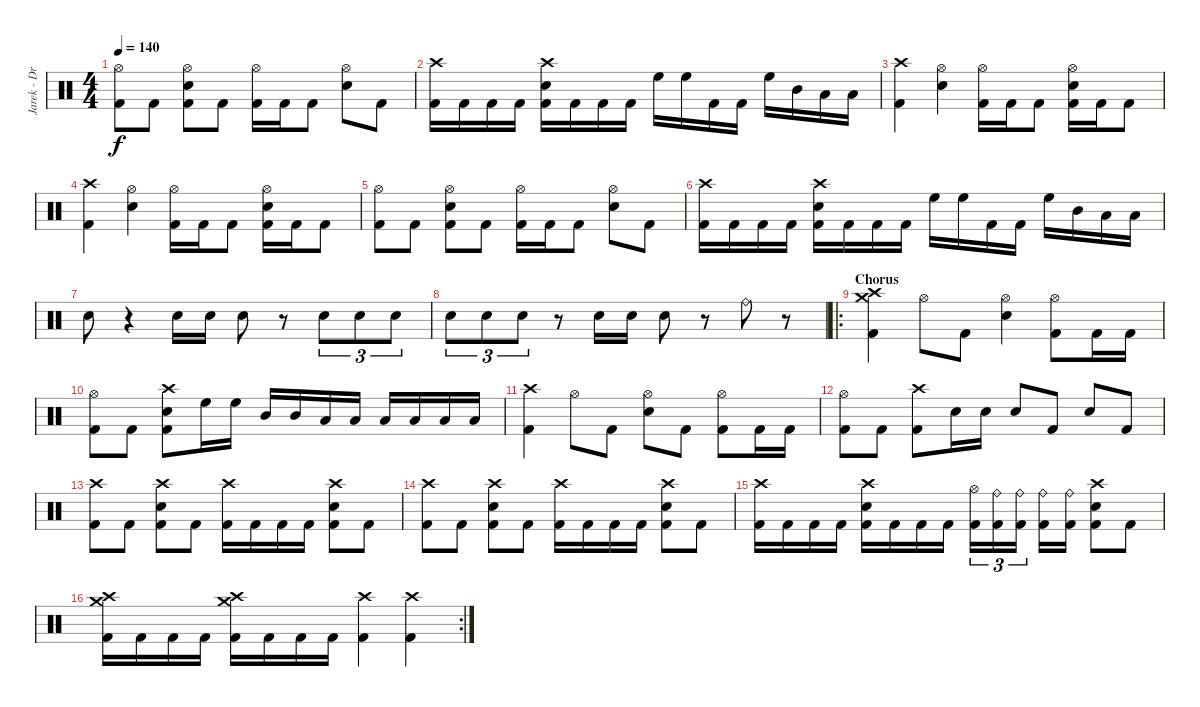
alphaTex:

\track ("Jarek - Drums" "Jarek - Dr") {instrument percussion}
\staff {score}
\articulation defaults
\ts (4 4)
\tempo 140
\clef neutral
\ks c
("Hi-Hat (open)" "Kick (hit) 2").8{dy f} "Kick (hit) 2".8 ("Hi-Hat (open)" "Snare (hit) 2" "Kick (hit) 2").8 "Kick (hit) 2".8 ("Hi-Hat (open)" "Kick (hit) 2").16 "Kick (hit) 2".16 "Kick (hit) 2".8 ("Hi-Hat (open)" "Snare (hit) 2").8 "Kick (hit) 2".8 |
("Crash high (hit)" "Kick (hit) 2").16 "Kick (hit) 2".16 "Kick (hit) 2".16 "Kick (hit) 2".16 ("Crash high (hit)" "Snare (hit) 2" "Kick (hit) 2").16 "Kick (hit) 2".16 "Kick (hit) 2".16 "Kick (hit) 2".16 "High Floor Tom (hit)".16 "High Floor Tom (hit)".16 "Kick (hit) 2".16 "Kick (hit) 2".16 "High Floor Tom (hit)".16 "Mid Tom (hit)".16 "Low Tom (hit)".16 "Low Floor Tom (hit)".16 |
("Crash high (hit)" "Kick (hit) 2").4 ("Hi-Hat (open)" "Snare (hit) 2").4 ("Hi-Hat (open)" "Kick (hit) 2").16 "Kick (hit) 2".16 "Kick (hit) 2".8 ("Hi-Hat (open)" "Snare (hit) 2" "Kick (hit) 2").16 "Kick (hit) 2".16 "Kick (hit) 2".8 |
("Crash high (hit)" "Kick (hit) 2").4 ("Hi-Hat (open)" "Snare (hit) 2").4 ("Hi-Hat (open)" "Kick (hit) 2").16 "Kick (hit) 2".16 "Kick (hit) 2".8 ("Hi-Hat (open)" "Snare (hit) 2" "Kick (hit) 2").16 "Kick (hit) 2".16 "Kick (hit) 2".8 |
("Hi-Hat (open)" "Kick (hit) 2").8 "Kick (hit) 2".8 ("Hi-Hat (open)" "Snare (hit) 2" "Kick (hit) 2").8 "Kick (hit) 2".8 ("Hi-Hat (open)" "Kick (hit) 2").16 "Kick (hit) 2".16 "Kick (hit) 2".8 ("Hi-Hat (open)" "Snare (hit) 2").8 "Kick (hit) 2".8 |
("Crash high (hit)" "Kick (hit) 2").16 "Kick (hit) 2".16 "Kick (hit) 2".16 "Kick (hit) 2".16 ("Crash high (hit)" "Snare (hit) 2" "Kick (hit) 2").16 "Kick (hit) 2".16 "Kick (hit) 2".16 "Kick (hit) 2".16 "High Floor Tom (hit)".16 "High Floor Tom (hit)".16 "Kick (hit) 2".16 "Kick (hit) 2".16 "High Floor Tom (hit)".16 "Mid Tom (hit)".16 "Low Tom (hit)".16 "Low Floor Tom (hit)".16 |
"Snare (hit) 2".8 r.4 "Snare (hit) 2".16 "Snare (hit) 2".16 "Snare (hit) 2".8 r.8 "Snare (hit) 2".8{tu (3 2)} "Snare (hit) 2".8{tu (3 2)} "Snare (hit) 2".8{tu (3 2)} |
"Snare (hit) 2".8{tu (3 2)} "Snare (hit) 2".8{tu (3 2)} "Snare (hit) 2".8{tu (3 2)} r.8 "Snare (hit) 2".16 "Snare (hit) 2".16 "Snare (hit) 2".8 r.8 "Ride (bell)".8 r.8 |
\ro
\section ("" "Chorus")
("Crash high (hit)" "Crash medium (hit)" "Kick (hit) 2").4 "Hi-Hat (open)".8 "Kick (hit) 2".8 ("Hi-Hat (open)" "Snare (hit) 2").4 ("Hi-Hat (open)" "Kick (hit) 2").8 "Kick (hit) 2".16 "Kick (hit) 2".16 |
("Hi-Hat (open)" "Kick (hit) 2").8 "Kick (hit) 2".8 ("Crash high (hit)" "Snare (hit) 2" "Kick (hit) 2").8 "High Floor Tom (hit)".16 "High Floor Tom (hit)".16 "Mid Tom (hit)".16 "Mid Tom (hit)".16 "Low Tom (hit)".16 "Low Tom (hit)".16 "Low Tom (hit)".16 "Low Floor Tom (hit)".16 "Low Floor Tom (hit)".16 "Low Floor Tom (hit)".16 |
("Crash high (hit)" "Kick (hit) 2").4 "Hi-Hat (open)".8 "Kick (hit) 2".8 ("Hi-Hat (open)" "Snare (hit) 2").8 "Kick (hit) 2".8 ("Hi-Hat (open)" "Kick (hit) 2").8 "Kick (hit) 2".16 "Kick (hit) 2".16 |
("Hi-Hat (open)" "Kick (hit) 2").8 "Kick (hit) 2".8 ("Crash high (hit)" "Kick (hit) 2").8 "Snare (hit) 2".16 "Snare (hit) 2".16 "Snare (hit) 2".8 "Kick (hit) 2".8 "Snare (hit) 2".8 "Kick (hit) 2".8 |
("Crash high (hit)" "Kick (hit) 2").8 "Kick (hit) 2".8 ("Crash high (hit)" "Snare (hit) 2" "Kick (hit) 2").8 "Kick (hit) 2".8 ("Crash high (hit)" "Kick (hit) 2").16 "Kick (hit) 2".16 "Kick (hit) 2".16 "Kick (hit) 2".16 ("Crash high (hit)" "Snare (hit) 2" "Kick (hit) 2").8 "Kick (hit) 2".8 |
("Crash high (hit)" "Kick (hit) 2").8 "Kick (hit) 2".8 ("Crash high (hit)" "Snare (hit) 2" "Kick (hit) 2").8 "Kick (hit) 2".8 ("Crash high (hit)" "Kick (hit) 2").16 "Kick (hit) 2".16 "Kick (hit) 2".16 "Kick (hit) 2".16 ("Crash high (hit)" "Snare (hit) 2" "Kick (hit) 2").8 "Kick (hit) 2".8 |
("Crash high (hit)" "Kick (hit) 2").16 "Kick (hit) 2".16 "Kick (hit) 2".16 "Kick (hit) 2".16 ("Crash high (hit)" "Snare (hit) 2" "Kick (hit) 2").16 "Kick (hit) 2".16 "Kick (hit) 2".16 "Kick (hit) 2".16 ("Hi-Hat (open)" "Kick (hit) 2").16{tu (3 2)} ("Ride (bell)" "Kick (hit) 2").16{tu (3 2)} ("Ride (bell)" "Kick (hit) 2").16{tu (3 2)} ("Ride (bell)" "Kick (hit) 2").16 ("Ride (bell)" "Kick (hit) 2").16 ("Crash high (hit)" "Snare (hit) 2" "Kick (hit) 2").8 "Kick (hit) 2".8 |
\rc 2
("Crash high (hit)" "Crash medium (hit)" "Kick (hit) 2").16 "Kick (hit) 2".16 "Kick (hit) 2".16 "Kick (hit) 2".16 ("Crash high (hit)" "Crash medium (hit)" "Kick (hit) 2").16 "Kick (hit) 2".16 "Kick (hit) 2".16 "Kick (hit) 2".16 ("Crash high (hit)" "Kick (hit) 2").4 ("Crash high (hit)" "Kick (hit) 2").4
